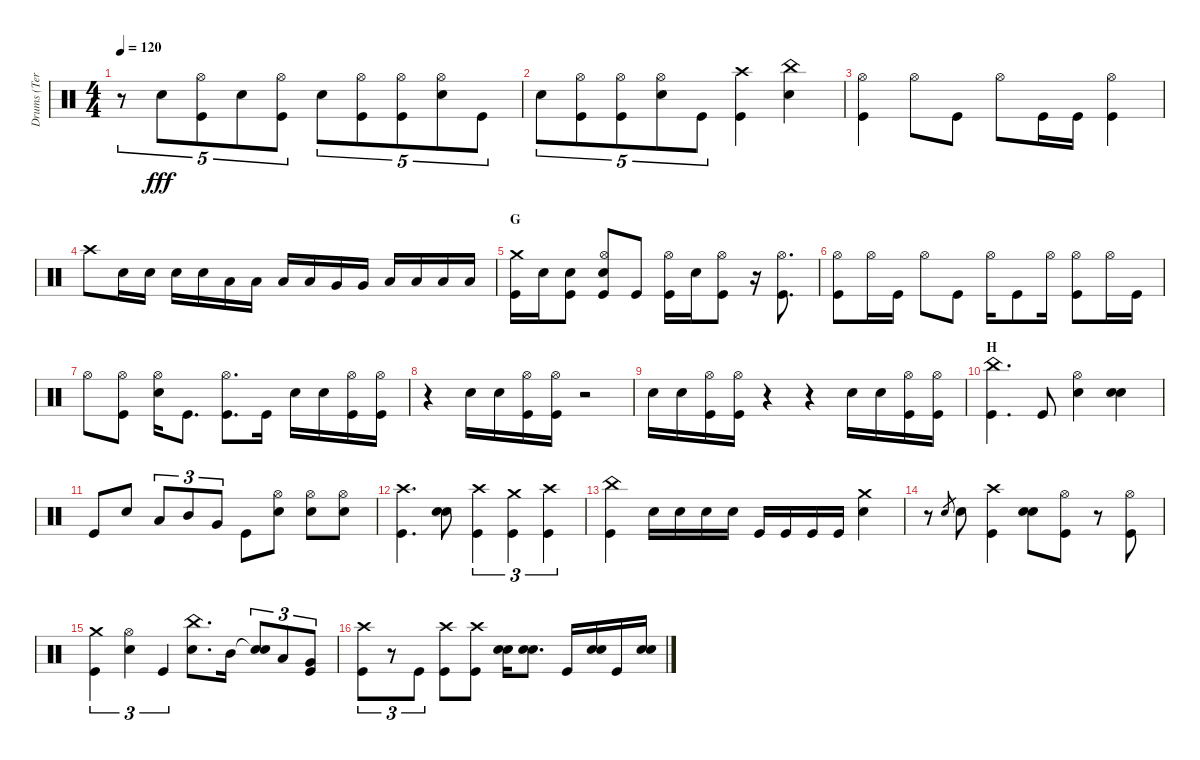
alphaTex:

\track ("Drums (Terry Bozzio)" "Drums (Ter") {instrument percussion}
\staff {score}
\articulation defaults
\ts (4 4)
\tempo 120
\clef neutral
\ks c
r.8{tu (5 4) dy fff} "Snare (hit) 2".8{tu (5 4)} ("Hi-Hat (open)" "Kick (hit)").8{tu (5 4)} "Snare (hit) 2".8{tu (5 4)} ("Hi-Hat (open)" "Kick (hit)").8{tu (5 4)} "Snare (hit) 2".8{tu (5 4)} ("Hi-Hat (open)" "Kick (hit)").8{tu (5 4)} ("Hi-Hat (open)" "Kick (hit)").8{tu (5 4)} ("Hi-Hat (open)" "Snare (hit) 2").8{tu (5 4)} "Kick (hit)".8{tu (5 4)} |
"Snare (hit) 2".8{tu (5 4)} ("Hi-Hat (open)" "Kick (hit)").8{tu (5 4)} ("Hi-Hat (open)" "Kick (hit)").8{tu (5 4)} ("Hi-Hat (open)" "Snare (hit) 2").8{tu (5 4)} "Kick (hit)".8{tu (5 4)} ("Crash high (hit)" "Kick (hit)").4 ("China (hit)" "Snare (hit) 2").4 |
("Hi-Hat (open)" "Kick (hit)").4 "Hi-Hat (open)".8 "Kick (hit)".8 "Hi-Hat (open)".8 "Kick (hit)".16 "Kick (hit)".16 ("Hi-Hat (open)" "Kick (hit)").4 |
"Crash high (hit)".8 "Snare (hit) 2".16 "Snare (hit) 2".16 "Snare (hit) 2".16 "Snare (hit) 2".16 "Low Tom (hit)".16 "Low Tom (hit)".16 "Low Tom (hit)".16 "Low Tom (hit)".16 "Very Low Tom (hit)".16 "Very Low Tom (hit)".16 "Low Floor Tom (hit)".16 "Low Floor Tom (hit)".16 "Low Floor Tom (hit)".16 "Low Floor Tom (hit)".16 |
\section ("" "G")
("Crash medium (hit)" "Kick (hit)").16 "Snare (hit) 2".16 ("Snare (hit) 2" "Kick (hit)").8 ("Hi-Hat (open)" "Snare (hit) 2" "Kick (hit)").8 "Kick (hit)".8 ("Hi-Hat (open)" "Kick (hit)").16 "Snare (hit) 2".16 ("Hi-Hat (open)" "Kick (hit)").8 r.16 ("Hi-Hat (open)" "Kick (hit)").8{d} |
("Hi-Hat (open)" "Kick (hit)").8 "Hi-Hat (open)".16 "Kick (hit)".16 "Hi-Hat (open)".8 "Kick (hit)".8 "Hi-Hat (open)".16 "Kick (hit)".8 "Hi-Hat (open)".16 ("Hi-Hat (open)" "Kick (hit)").8 "Hi-Hat (open)".16 "Kick (hit)".16 |
"Hi-Hat (open)".8 ("Hi-Hat (open)" "Kick (hit)").8 ("Hi-Hat (open)" "Snare (hit) 2").16 "Kick (hit)".8{d} ("Hi-Hat (open)" "Kick (hit)").8{d} "Kick (hit)".16 "Snare (hit) 2".16 "Snare (hit) 2".16 ("Hi-Hat (open)" "Kick (hit)").16 ("Hi-Hat (open)" "Kick (hit)").16 |
r.4 "Snare (hit) 2".16 "Snare (hit) 2".16 ("Hi-Hat (open)" "Kick (hit)").16 ("Hi-Hat (open)" "Kick (hit)").16 r.2 |
"Snare (hit) 2".16 "Snare (hit) 2".16 ("Hi-Hat (open)" "Kick (hit)").16 ("Hi-Hat (open)" "Kick (hit)").16 r.4 r.4 "Snare (hit) 2".16 "Snare (hit) 2".16 ("Hi-Hat (open)" "Kick (hit)").16 ("Hi-Hat (open)" "Kick (hit)").16 |
\section ("" "H")
("China (hit)" "Kick (hit)").4{d} "Kick (hit)".8 ("Hi-Hat (open)" "Snare (hit) 2").4 ("Snare (hit) 2" "Snare (hit) 2").4 |
"Kick (hit)".8 "Snare (hit) 2".8 "Low Tom (hit)".8{tu (3 2)} "Mid Tom (hit)".8{tu (3 2)} "Very Low Tom (hit)".8{tu (3 2)} "Kick (hit)".8 ("Hi-Hat (open)" "Snare (hit) 2").8 ("Hi-Hat (open)" "Snare (hit) 2").8 ("Hi-Hat (open)" "Snare (hit) 2").8 |
("Crash high (hit)" "Kick (hit)").4{d} ("Snare (hit) 2" "Snare (hit) 2").8 ("Crash high (hit)" "Kick (hit)").4{tu (3 2)} ("Crash medium (hit)" "Kick (hit)").4{tu (3 2)} ("Crash high (hit)" "Kick (hit)").4{tu (3 2)} |
("China (hit)" "Kick (hit)").4 "Snare (hit) 2".16 "Snare (hit) 2".16 "Snare (hit) 2".16 "Snare (hit) 2".16 "Kick (hit)".16 "Kick (hit)".16 "Kick (hit)".16 "Kick (hit)".16 ("Crash medium (hit)" "Snare (hit) 2").4 |
r.8 "Snare (hit) 2".8{gr} "Snare (hit) 2".8 ("Crash high (hit)" "Kick (hit)").4 ("Snare (hit) 2" "Snare (hit) 2").8 ("Hi-Hat (open)" "Kick (hit)").8 r.8 ("Hi-Hat (open)" "Kick (hit)").8 |
("Crash medium (hit)" "Kick (hit)").4{tu (3 2)} ("Hi-Hat (open)" "Snare (hit) 2").4{tu (3 2)} "Kick (hit)".4{tu (3 2)} ("China (hit)" "Snare (hit) 2").8{d} "Mid Tom (hit)".16 ("Snare (hit)"{t} "Snare (hit) 2").8{tu (3 2)} "Low Tom (hit)".8{tu (3 2)} ("Very Low Tom (hit)" "Kick (hit)").8{tu (3 2)} |
("Crash high (hit)" "Kick (hit)").8{tu (3 2)} r.8{tu (3 2)} "Kick (hit)".8{tu (3 2)} ("Crash high (hit)" "Kick (hit)").8 ("Crash high (hit)" "Kick (hit)").8 ("Snare (hit) 2" "Snare (hit) 2").16 ("Snare (hit) 2" "Snare (hit) 2").8{d} "Kick (hit)".16 ("Snare (hit) 2" "Snare (hit) 2").16 "Kick (hit)".16 ("Snare (hit) 2" "Snare (hit) 2").16
